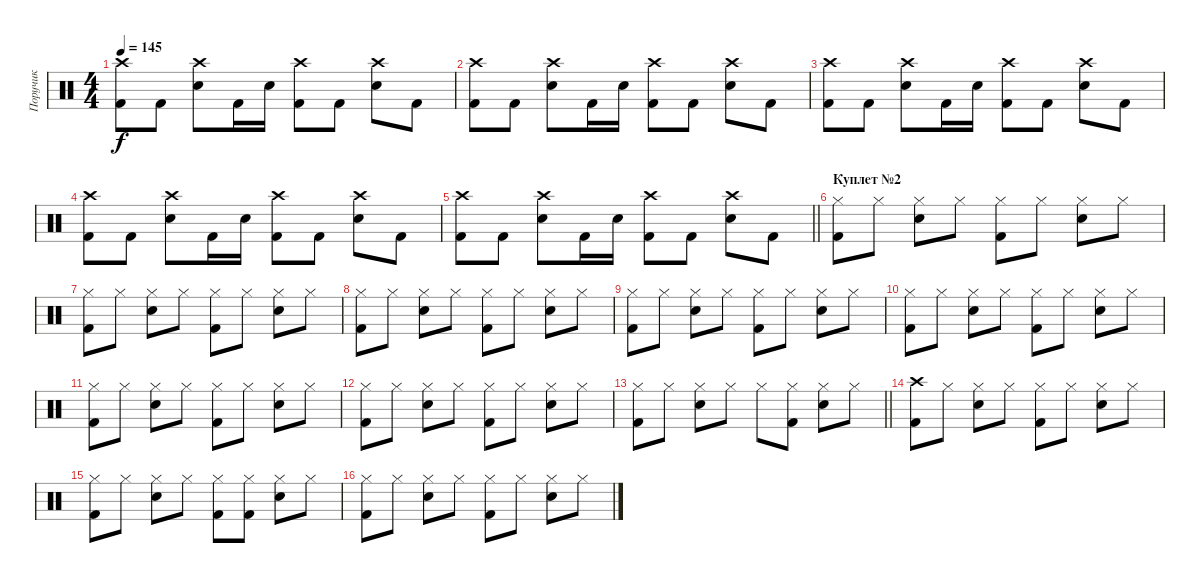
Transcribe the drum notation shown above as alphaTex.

\track ("Поручик" "Поручик") {instrument percussion}
\staff {score}
\articulation defaults
\ts (4 4)
\tempo 145
\clef neutral
\ks c
("Crash high (hit)" "Kick (hit) 2").8{dy f} "Kick (hit) 2".8 ("Crash high (hit)" "Electric Snare (hit)").8 "Kick (hit) 2".16 "Electric Snare (hit)".16 ("Crash high (hit)" "Kick (hit) 2").8 "Kick (hit) 2".8 ("Crash high (hit)" "Electric Snare (hit)").8 "Kick (hit) 2".8 |
("Crash high (hit)" "Kick (hit) 2").8 "Kick (hit) 2".8 ("Crash high (hit)" "Electric Snare (hit)").8 "Kick (hit) 2".16 "Electric Snare (hit)".16 ("Crash high (hit)" "Kick (hit) 2").8 "Kick (hit) 2".8 ("Crash high (hit)" "Electric Snare (hit)").8 "Kick (hit) 2".8 |
("Crash high (hit)" "Kick (hit) 2").8 "Kick (hit) 2".8 ("Crash high (hit)" "Electric Snare (hit)").8 "Kick (hit) 2".16 "Electric Snare (hit)".16 ("Crash high (hit)" "Kick (hit) 2").8 "Kick (hit) 2".8 ("Crash high (hit)" "Electric Snare (hit)").8 "Kick (hit) 2".8 |
("Crash high (hit)" "Kick (hit) 2").8 "Kick (hit) 2".8 ("Crash high (hit)" "Electric Snare (hit)").8 "Kick (hit) 2".16 "Electric Snare (hit)".16 ("Crash high (hit)" "Kick (hit) 2").8 "Kick (hit) 2".8 ("Crash high (hit)" "Electric Snare (hit)").8 "Kick (hit) 2".8 |
\barLineRight lightlight
("Crash high (hit)" "Kick (hit) 2").8 "Kick (hit) 2".8 ("Crash high (hit)" "Electric Snare (hit)").8 "Kick (hit) 2".16 "Electric Snare (hit)".16 ("Crash high (hit)" "Kick (hit) 2").8 "Kick (hit) 2".8 ("Crash high (hit)" "Electric Snare (hit)").8 "Kick (hit) 2".8 |
\section ("" "Куплет №2")
("Hi-Hat (closed)" "Kick (hit) 2").8 "Hi-Hat (closed)".8 ("Hi-Hat (closed)" "Electric Snare (hit)").8 "Hi-Hat (closed)".8 ("Hi-Hat (closed)" "Kick (hit) 2").8 "Hi-Hat (closed)".8 ("Hi-Hat (closed)" "Electric Snare (hit)").8 "Hi-Hat (closed)".8 |
("Hi-Hat (closed)" "Kick (hit) 2").8 "Hi-Hat (closed)".8 ("Hi-Hat (closed)" "Electric Snare (hit)").8 "Hi-Hat (closed)".8 ("Hi-Hat (closed)" "Kick (hit) 2").8 "Hi-Hat (closed)".8 ("Hi-Hat (closed)" "Electric Snare (hit)").8 "Hi-Hat (closed)".8 |
("Hi-Hat (closed)" "Kick (hit) 2").8 "Hi-Hat (closed)".8 ("Hi-Hat (closed)" "Electric Snare (hit)").8 "Hi-Hat (closed)".8 ("Hi-Hat (closed)" "Kick (hit) 2").8 "Hi-Hat (closed)".8 ("Hi-Hat (closed)" "Electric Snare (hit)").8 "Hi-Hat (closed)".8 |
("Hi-Hat (closed)" "Kick (hit) 2").8 "Hi-Hat (closed)".8 ("Hi-Hat (closed)" "Electric Snare (hit)").8 "Hi-Hat (closed)".8 ("Hi-Hat (closed)" "Kick (hit) 2").8 "Hi-Hat (closed)".8 ("Hi-Hat (closed)" "Electric Snare (hit)").8 "Hi-Hat (closed)".8 |
("Hi-Hat (closed)" "Kick (hit) 2").8 "Hi-Hat (closed)".8 ("Hi-Hat (closed)" "Electric Snare (hit)").8 "Hi-Hat (closed)".8 ("Hi-Hat (closed)" "Kick (hit) 2").8 "Hi-Hat (closed)".8 ("Hi-Hat (closed)" "Electric Snare (hit)").8 "Hi-Hat (closed)".8 |
("Hi-Hat (closed)" "Kick (hit) 2").8 "Hi-Hat (closed)".8 ("Hi-Hat (closed)" "Electric Snare (hit)").8 "Hi-Hat (closed)".8 ("Hi-Hat (closed)" "Kick (hit) 2").8 "Hi-Hat (closed)".8 ("Hi-Hat (closed)" "Electric Snare (hit)").8 "Hi-Hat (closed)".8 |
("Hi-Hat (closed)" "Kick (hit) 2").8 "Hi-Hat (closed)".8 ("Hi-Hat (closed)" "Electric Snare (hit)").8 "Hi-Hat (closed)".8 ("Hi-Hat (closed)" "Kick (hit) 2").8 "Hi-Hat (closed)".8 ("Hi-Hat (closed)" "Electric Snare (hit)").8 "Hi-Hat (closed)".8 |
\barLineRight lightlight
("Hi-Hat (closed)" "Kick (hit) 2").8 "Hi-Hat (closed)".8 ("Hi-Hat (closed)" "Electric Snare (hit)").8 "Hi-Hat (closed)".8 "Hi-Hat (closed)".8 ("Hi-Hat (closed)" "Kick (hit) 2").8 ("Hi-Hat (closed)" "Electric Snare (hit)").8 "Hi-Hat (closed)".8 |
("Crash high (hit)" "Kick (hit) 2").8 "Hi-Hat (closed)".8 ("Hi-Hat (closed)" "Electric Snare (hit)").8 "Hi-Hat (closed)".8 ("Hi-Hat (closed)" "Kick (hit) 2").8 "Hi-Hat (closed)".8 ("Hi-Hat (closed)" "Electric Snare (hit)").8 "Hi-Hat (closed)".8 |
("Hi-Hat (closed)" "Kick (hit) 2").8 "Hi-Hat (closed)".8 ("Hi-Hat (closed)" "Electric Snare (hit)").8 "Hi-Hat (closed)".8 ("Hi-Hat (closed)" "Kick (hit) 2").8 ("Hi-Hat (closed)" "Kick (hit) 2").8 ("Hi-Hat (closed)" "Electric Snare (hit)").8 "Hi-Hat (closed)".8 |
("Hi-Hat (closed)" "Kick (hit) 2").8 "Hi-Hat (closed)".8 ("Hi-Hat (closed)" "Electric Snare (hit)").8 "Hi-Hat (closed)".8 ("Hi-Hat (closed)" "Kick (hit) 2").8 "Hi-Hat (closed)".8 ("Hi-Hat (closed)" "Electric Snare (hit)").8 "Hi-Hat (closed)".8
